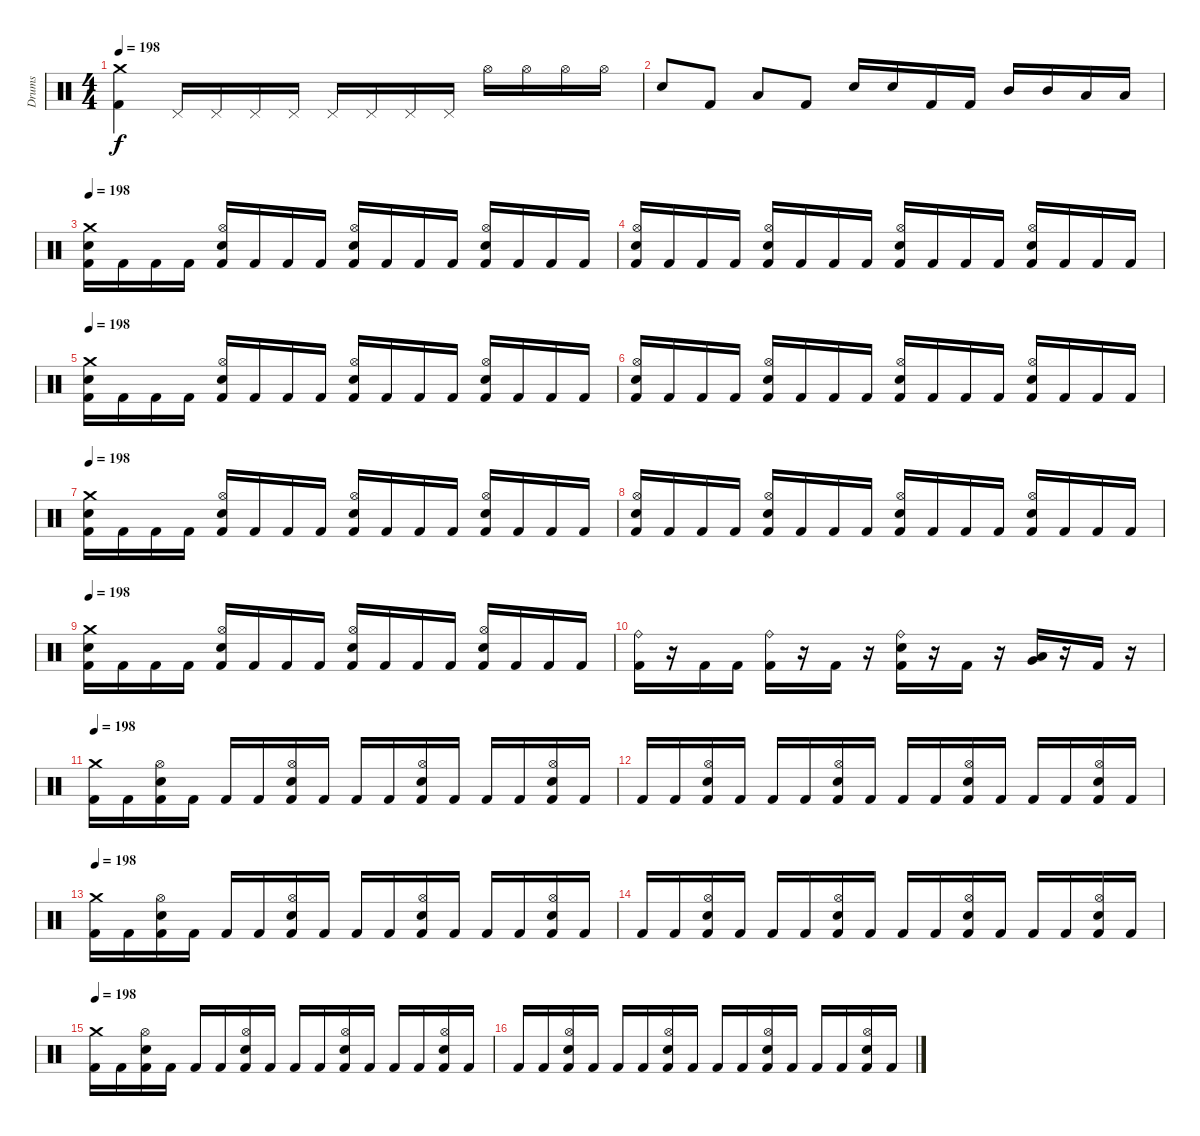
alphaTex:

\track ("Drums" "Drums") {instrument percussion}
\staff {score}
\articulation defaults
\ts (4 4)
\tempo 198
\clef neutral
\ks c
("Crash medium (hit)" "Kick (hit) 2").4{dy f} "Pedal Hi-Hat (hit)".16 "Pedal Hi-Hat (hit)".16 "Pedal Hi-Hat (hit)".16 "Pedal Hi-Hat (hit)".16 "Pedal Hi-Hat (hit)".16 "Pedal Hi-Hat (hit)".16 "Pedal Hi-Hat (hit)".16 "Pedal Hi-Hat (hit)".16 "Hi-Hat (open)".16 "Hi-Hat (open)".16 "Hi-Hat (open)".16 "Hi-Hat (open)".16 |
"Snare (hit) 2".8 "Kick (hit) 2".8 "Low Tom (hit)".8 "Kick (hit) 2".8 "Snare (hit) 2".16 "Snare (hit) 2".16 "Kick (hit) 2".16 "Kick (hit) 2".16 "Mid Tom (hit)".16 "Mid Tom (hit)".16 "Low Tom (hit)".16 "Low Tom (hit)".16 |
\tempo 198
("Crash medium (hit)" "Snare (hit) 2" "Kick (hit) 2").16 "Kick (hit) 2".16 "Kick (hit) 2".16 "Kick (hit) 2".16 ("Hi-Hat (open)" "Snare (hit) 2" "Kick (hit) 2").16 "Kick (hit) 2".16 "Kick (hit) 2".16 "Kick (hit) 2".16 ("Hi-Hat (open)" "Snare (hit) 2" "Kick (hit) 2").16 "Kick (hit) 2".16 "Kick (hit) 2".16 "Kick (hit) 2".16 ("Hi-Hat (open)" "Snare (hit) 2" "Kick (hit) 2").16 "Kick (hit) 2".16 "Kick (hit) 2".16 "Kick (hit) 2".16 |
("Hi-Hat (open)" "Snare (hit) 2" "Kick (hit) 2").16 "Kick (hit) 2".16 "Kick (hit) 2".16 "Kick (hit) 2".16 ("Hi-Hat (open)" "Snare (hit) 2" "Kick (hit) 2").16 "Kick (hit) 2".16 "Kick (hit) 2".16 "Kick (hit) 2".16 ("Hi-Hat (open)" "Snare (hit) 2" "Kick (hit) 2").16 "Kick (hit) 2".16 "Kick (hit) 2".16 "Kick (hit) 2".16 ("Hi-Hat (open)" "Snare (hit) 2" "Kick (hit) 2").16 "Kick (hit) 2".16 "Kick (hit) 2".16 "Kick (hit) 2".16 |
\tempo 198
("Crash medium (hit)" "Snare (hit) 2" "Kick (hit) 2").16 "Kick (hit) 2".16 "Kick (hit) 2".16 "Kick (hit) 2".16 ("Hi-Hat (open)" "Snare (hit) 2" "Kick (hit) 2").16 "Kick (hit) 2".16 "Kick (hit) 2".16 "Kick (hit) 2".16 ("Hi-Hat (open)" "Snare (hit) 2" "Kick (hit) 2").16 "Kick (hit) 2".16 "Kick (hit) 2".16 "Kick (hit) 2".16 ("Hi-Hat (open)" "Snare (hit) 2" "Kick (hit) 2").16 "Kick (hit) 2".16 "Kick (hit) 2".16 "Kick (hit) 2".16 |
("Hi-Hat (open)" "Snare (hit) 2" "Kick (hit) 2").16 "Kick (hit) 2".16 "Kick (hit) 2".16 "Kick (hit) 2".16 ("Hi-Hat (open)" "Snare (hit) 2" "Kick (hit) 2").16 "Kick (hit) 2".16 "Kick (hit) 2".16 "Kick (hit) 2".16 ("Hi-Hat (open)" "Snare (hit) 2" "Kick (hit) 2").16 "Kick (hit) 2".16 "Kick (hit) 2".16 "Kick (hit) 2".16 ("Hi-Hat (open)" "Snare (hit) 2" "Kick (hit) 2").16 "Kick (hit) 2".16 "Kick (hit) 2".16 "Kick (hit) 2".16 |
\tempo 198
("Crash medium (hit)" "Snare (hit) 2" "Kick (hit) 2").16 "Kick (hit) 2".16 "Kick (hit) 2".16 "Kick (hit) 2".16 ("Hi-Hat (open)" "Snare (hit) 2" "Kick (hit) 2").16 "Kick (hit) 2".16 "Kick (hit) 2".16 "Kick (hit) 2".16 ("Hi-Hat (open)" "Snare (hit) 2" "Kick (hit) 2").16 "Kick (hit) 2".16 "Kick (hit) 2".16 "Kick (hit) 2".16 ("Hi-Hat (open)" "Snare (hit) 2" "Kick (hit) 2").16 "Kick (hit) 2".16 "Kick (hit) 2".16 "Kick (hit) 2".16 |
("Hi-Hat (open)" "Snare (hit) 2" "Kick (hit) 2").16 "Kick (hit) 2".16 "Kick (hit) 2".16 "Kick (hit) 2".16 ("Hi-Hat (open)" "Snare (hit) 2" "Kick (hit) 2").16 "Kick (hit) 2".16 "Kick (hit) 2".16 "Kick (hit) 2".16 ("Hi-Hat (open)" "Snare (hit) 2" "Kick (hit) 2").16 "Kick (hit) 2".16 "Kick (hit) 2".16 "Kick (hit) 2".16 ("Hi-Hat (open)" "Snare (hit) 2" "Kick (hit) 2").16 "Kick (hit) 2".16 "Kick (hit) 2".16 "Kick (hit) 2".16 |
\tempo 198
("Crash medium (hit)" "Snare (hit) 2" "Kick (hit) 2").16 "Kick (hit) 2".16 "Kick (hit) 2".16 "Kick (hit) 2".16 ("Hi-Hat (open)" "Snare (hit) 2" "Kick (hit) 2").16 "Kick (hit) 2".16 "Kick (hit) 2".16 "Kick (hit) 2".16 ("Hi-Hat (open)" "Snare (hit) 2" "Kick (hit) 2").16 "Kick (hit) 2".16 "Kick (hit) 2".16 "Kick (hit) 2".16 ("Hi-Hat (open)" "Snare (hit) 2" "Kick (hit) 2").16 "Kick (hit) 2".16 "Kick (hit) 2".16 "Kick (hit) 2".16 |
("Ride (bell)" "Kick (hit) 2").16 r.16 "Kick (hit) 2".16 "Kick (hit) 2".16 ("Ride (bell)" "Kick (hit) 2").16 r.16 "Kick (hit) 2".16 r.16 ("Ride (bell)" "Snare (hit) 2" "Kick (hit) 2").16 r.16 "Kick (hit) 2".16 r.16 ("Very Low Tom (hit)" "Low Tom (hit)").16 r.16 "Kick (hit) 2".16 r.16 |
\tempo 198
("Crash medium (hit)" "Kick (hit) 2").16 "Kick (hit) 2".16 ("Hi-Hat (open)" "Snare (hit) 2" "Kick (hit) 2").16 "Kick (hit) 2".16 "Kick (hit) 2".16 "Kick (hit) 2".16 ("Hi-Hat (open)" "Snare (hit) 2" "Kick (hit) 2").16 "Kick (hit) 2".16 "Kick (hit) 2".16 "Kick (hit) 2".16 ("Hi-Hat (open)" "Snare (hit) 2" "Kick (hit) 2").16 "Kick (hit) 2".16 "Kick (hit) 2".16 "Kick (hit) 2".16 ("Hi-Hat (open)" "Snare (hit) 2" "Kick (hit) 2").16 "Kick (hit) 2".16 |
"Kick (hit) 2".16 "Kick (hit) 2".16 ("Hi-Hat (open)" "Snare (hit) 2" "Kick (hit) 2").16 "Kick (hit) 2".16 "Kick (hit) 2".16 "Kick (hit) 2".16 ("Hi-Hat (open)" "Snare (hit) 2" "Kick (hit) 2").16 "Kick (hit) 2".16 "Kick (hit) 2".16 "Kick (hit) 2".16 ("Hi-Hat (open)" "Snare (hit) 2" "Kick (hit) 2").16 "Kick (hit) 2".16 "Kick (hit) 2".16 "Kick (hit) 2".16 ("Hi-Hat (open)" "Snare (hit) 2" "Kick (hit) 2").16 "Kick (hit) 2".16 |
\tempo 198
("Crash medium (hit)" "Kick (hit) 2").16 "Kick (hit) 2".16 ("Hi-Hat (open)" "Snare (hit) 2" "Kick (hit) 2").16 "Kick (hit) 2".16 "Kick (hit) 2".16 "Kick (hit) 2".16 ("Hi-Hat (open)" "Snare (hit) 2" "Kick (hit) 2").16 "Kick (hit) 2".16 "Kick (hit) 2".16 "Kick (hit) 2".16 ("Hi-Hat (open)" "Snare (hit) 2" "Kick (hit) 2").16 "Kick (hit) 2".16 "Kick (hit) 2".16 "Kick (hit) 2".16 ("Hi-Hat (open)" "Snare (hit) 2" "Kick (hit) 2").16 "Kick (hit) 2".16 |
"Kick (hit) 2".16 "Kick (hit) 2".16 ("Hi-Hat (open)" "Snare (hit) 2" "Kick (hit) 2").16 "Kick (hit) 2".16 "Kick (hit) 2".16 "Kick (hit) 2".16 ("Hi-Hat (open)" "Snare (hit) 2" "Kick (hit) 2").16 "Kick (hit) 2".16 "Kick (hit) 2".16 "Kick (hit) 2".16 ("Hi-Hat (open)" "Snare (hit) 2" "Kick (hit) 2").16 "Kick (hit) 2".16 "Kick (hit) 2".16 "Kick (hit) 2".16 ("Hi-Hat (open)" "Snare (hit) 2" "Kick (hit) 2").16 "Kick (hit) 2".16 |
\tempo 198
("Crash medium (hit)" "Kick (hit) 2").16 "Kick (hit) 2".16 ("Hi-Hat (open)" "Snare (hit) 2" "Kick (hit) 2").16 "Kick (hit) 2".16 "Kick (hit) 2".16 "Kick (hit) 2".16 ("Hi-Hat (open)" "Snare (hit) 2" "Kick (hit) 2").16 "Kick (hit) 2".16 "Kick (hit) 2".16 "Kick (hit) 2".16 ("Hi-Hat (open)" "Snare (hit) 2" "Kick (hit) 2").16 "Kick (hit) 2".16 "Kick (hit) 2".16 "Kick (hit) 2".16 ("Hi-Hat (open)" "Snare (hit) 2" "Kick (hit) 2").16 "Kick (hit) 2".16 |
"Kick (hit) 2".16 "Kick (hit) 2".16 ("Hi-Hat (open)" "Snare (hit) 2" "Kick (hit) 2").16 "Kick (hit) 2".16 "Kick (hit) 2".16 "Kick (hit) 2".16 ("Hi-Hat (open)" "Snare (hit) 2" "Kick (hit) 2").16 "Kick (hit) 2".16 "Kick (hit) 2".16 "Kick (hit) 2".16 ("Hi-Hat (open)" "Snare (hit) 2" "Kick (hit) 2").16 "Kick (hit) 2".16 "Kick (hit) 2".16 "Kick (hit) 2".16 ("Hi-Hat (open)" "Snare (hit) 2" "Kick (hit) 2").16 "Kick (hit) 2".16
